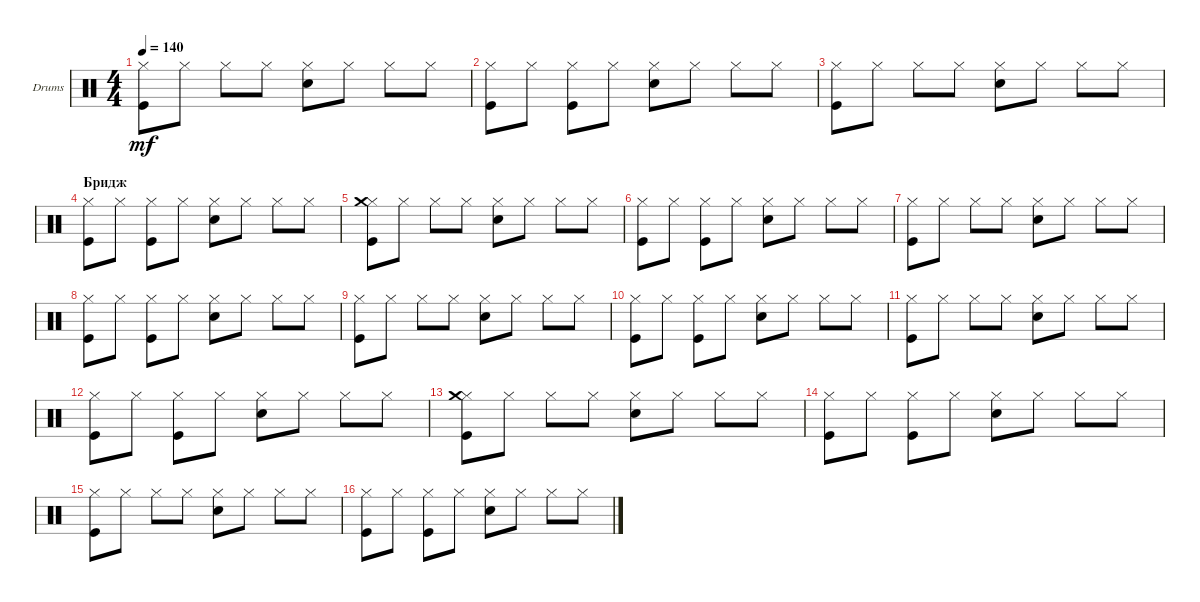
\defaultSystemsLayout 4
\bracketExtendMode groupsimilarinstruments
\firstSystemTrackNameOrientation horizontal
\otherSystemsTrackNameOrientation horizontal
\track ("Ударные" "Drums") {instrument percussion}
\staff {score}
\articulation defaults
\ts (4 4)
\tempo 140
\clef neutral
\scale
0.333333
\ks c
("Hi-Hat (closed)" "Kick (hit)").8{dy mf} "Hi-Hat (closed)".8 "Hi-Hat (closed)".8 "Hi-Hat (closed)".8 ("Hi-Hat (closed)" "Snare (hit) 2").8 "Hi-Hat (closed)".8 "Hi-Hat (closed)".8 "Hi-Hat (closed)".8 |
\scale
0.333333 ("Hi-Hat (closed)" "Kick (hit)").8 "Hi-Hat (closed)".8 ("Hi-Hat (closed)" "Kick (hit)").8 "Hi-Hat (closed)".8 ("Hi-Hat (closed)" "Snare (hit) 2").8 "Hi-Hat (closed)".8 "Hi-Hat (closed)".8 "Hi-Hat (closed)".8 |
\scale
0.333333 ("Hi-Hat (closed)" "Kick (hit)").8 "Hi-Hat (closed)".8 "Hi-Hat (closed)".8 "Hi-Hat (closed)".8 ("Hi-Hat (closed)" "Snare (hit) 2").8 "Hi-Hat (closed)".8 "Hi-Hat (closed)".8 "Hi-Hat (closed)".8 |
\section ("" "Бридж")
\scale
0.333333 ("Hi-Hat (closed)" "Kick (hit)").8 "Hi-Hat (closed)".8 ("Hi-Hat (closed)" "Kick (hit)").8 "Hi-Hat (closed)".8 ("Hi-Hat (closed)" "Snare (hit) 2").8 "Hi-Hat (closed)".8 "Hi-Hat (closed)".8 "Hi-Hat (closed)".8 |
\scale
0.333333 ("Hi-Hat (closed)" "Kick (hit)" "Crash medium (hit)").8 "Hi-Hat (closed)".8 "Hi-Hat (closed)".8 "Hi-Hat (closed)".8 ("Hi-Hat (closed)" "Snare (hit) 2").8 "Hi-Hat (closed)".8 "Hi-Hat (closed)".8 "Hi-Hat (closed)".8 |
\scale
0.333333 ("Hi-Hat (closed)" "Kick (hit)").8 "Hi-Hat (closed)".8 ("Hi-Hat (closed)" "Kick (hit)").8 "Hi-Hat (closed)".8 ("Hi-Hat (closed)" "Snare (hit) 2").8 "Hi-Hat (closed)".8 "Hi-Hat (closed)".8 "Hi-Hat (closed)".8 |
\scale
0.333333 ("Hi-Hat (closed)" "Kick (hit)").8 "Hi-Hat (closed)".8 "Hi-Hat (closed)".8 "Hi-Hat (closed)".8 ("Hi-Hat (closed)" "Snare (hit) 2").8 "Hi-Hat (closed)".8 "Hi-Hat (closed)".8 "Hi-Hat (closed)".8 |
\scale
0.333333 ("Hi-Hat (closed)" "Kick (hit)").8 "Hi-Hat (closed)".8 ("Hi-Hat (closed)" "Kick (hit)").8 "Hi-Hat (closed)".8 ("Hi-Hat (closed)" "Snare (hit) 2").8 "Hi-Hat (closed)".8 "Hi-Hat (closed)".8 "Hi-Hat (closed)".8 |
\scale
0.333333 ("Hi-Hat (closed)" "Kick (hit)").8 "Hi-Hat (closed)".8 "Hi-Hat (closed)".8 "Hi-Hat (closed)".8 ("Hi-Hat (closed)" "Snare (hit) 2").8 "Hi-Hat (closed)".8 "Hi-Hat (closed)".8 "Hi-Hat (closed)".8 |
\scale
0.333333 ("Hi-Hat (closed)" "Kick (hit)").8 "Hi-Hat (closed)".8 ("Hi-Hat (closed)" "Kick (hit)").8 "Hi-Hat (closed)".8 ("Hi-Hat (closed)" "Snare (hit) 2").8 "Hi-Hat (closed)".8 "Hi-Hat (closed)".8 "Hi-Hat (closed)".8 |
\scale
0.333333 ("Hi-Hat (closed)" "Kick (hit)").8 "Hi-Hat (closed)".8 "Hi-Hat (closed)".8 "Hi-Hat (closed)".8 ("Hi-Hat (closed)" "Snare (hit) 2").8 "Hi-Hat (closed)".8 "Hi-Hat (closed)".8 "Hi-Hat (closed)".8 |
\scale
0.333333 ("Hi-Hat (closed)" "Kick (hit)").8 "Hi-Hat (closed)".8 ("Hi-Hat (closed)" "Kick (hit)").8 "Hi-Hat (closed)".8 ("Hi-Hat (closed)" "Snare (hit) 2").8 "Hi-Hat (closed)".8 "Hi-Hat (closed)".8 "Hi-Hat (closed)".8 |
\scale
0.333333 ("Hi-Hat (closed)" "Kick (hit)" "Crash medium (hit)").8 "Hi-Hat (closed)".8 "Hi-Hat (closed)".8 "Hi-Hat (closed)".8 ("Hi-Hat (closed)" "Snare (hit) 2").8 "Hi-Hat (closed)".8 "Hi-Hat (closed)".8 "Hi-Hat (closed)".8 |
\scale
0.333333 ("Hi-Hat (closed)" "Kick (hit)").8 "Hi-Hat (closed)".8 ("Hi-Hat (closed)" "Kick (hit)").8 "Hi-Hat (closed)".8 ("Hi-Hat (closed)" "Snare (hit) 2").8 "Hi-Hat (closed)".8 "Hi-Hat (closed)".8 "Hi-Hat (closed)".8 |
\scale
0.333333 ("Hi-Hat (closed)" "Kick (hit)").8 "Hi-Hat (closed)".8 "Hi-Hat (closed)".8 "Hi-Hat (closed)".8 ("Hi-Hat (closed)" "Snare (hit) 2").8 "Hi-Hat (closed)".8 "Hi-Hat (closed)".8 "Hi-Hat (closed)".8 |
\scale
0.333333 ("Hi-Hat (closed)" "Kick (hit)").8 "Hi-Hat (closed)".8 ("Hi-Hat (closed)" "Kick (hit)").8 "Hi-Hat (closed)".8 ("Hi-Hat (closed)" "Snare (hit) 2").8 "Hi-Hat (closed)".8 "Hi-Hat (closed)".8 "Hi-Hat (closed)".8
